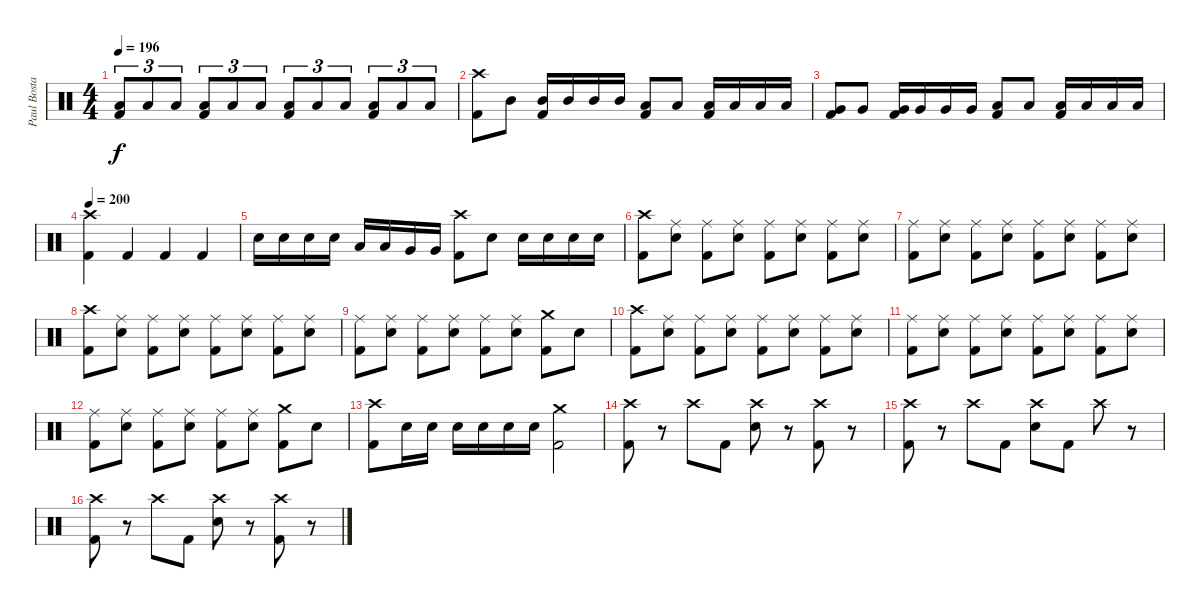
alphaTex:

\track ("Paul Bostaph" "Paul Bosta") {instrument percussion}
\staff {score}
\articulation defaults
\ts (4 4)
\tempo 196
\clef neutral
\ks c
("Low Floor Tom (hit)" "Kick (hit) 2").8{tu (3 2) dy f} "Low Floor Tom (hit)".8{tu (3 2)} "Low Floor Tom (hit)".8{tu (3 2)} ("Low Floor Tom (hit)" "Kick (hit) 2").8{tu (3 2)} "Low Floor Tom (hit)".8{tu (3 2)} "Low Floor Tom (hit)".8{tu (3 2)} ("Low Floor Tom (hit)" "Kick (hit) 2").8{tu (3 2)} "Low Floor Tom (hit)".8{tu (3 2)} "Low Floor Tom (hit)".8{tu (3 2)} ("Low Floor Tom (hit)" "Kick (hit) 2").8{tu (3 2)} "Low Floor Tom (hit)".8{tu (3 2)} "Low Floor Tom (hit)".8{tu (3 2)} |
("Crash high (hit)" "Kick (hit) 2").8 "Mid Tom (hit)".8 ("Kick (hit) 2" "Mid Tom (hit)").16 "Mid Tom (hit)".16 "Mid Tom (hit)".16 "Mid Tom (hit)".16 ("Kick (hit) 2" "Low Tom (hit)").8 "Low Tom (hit)".8 ("Kick (hit) 2" "Low Tom (hit)").16 "Low Tom (hit)".16 "Low Tom (hit)".16 "Low Tom (hit)".16 |
("Kick (hit) 2" "Very Low Tom (hit)").8 "Very Low Tom (hit)".8 ("Kick (hit) 2" "Very Low Tom (hit)").16 "Very Low Tom (hit)".16 "Very Low Tom (hit)".16 "Very Low Tom (hit)".16 ("Kick (hit) 2" "Low Floor Tom (hit)").8 "Low Floor Tom (hit)".8 ("Kick (hit) 2" "Low Floor Tom (hit)").16 "Low Floor Tom (hit)".16 "Low Floor Tom (hit)".16 "Low Floor Tom (hit)".16 |
\tempo 200
("Crash high (hit)" "Kick (hit) 2").4 "Kick (hit) 2".4 "Kick (hit) 2".4 "Kick (hit) 2".4 |
"Electric Snare (hit)".16 "Electric Snare (hit)".16 "Electric Snare (hit)".16 "Electric Snare (hit)".16 "Low Tom (hit)".16 "Low Tom (hit)".16 "Very Low Tom (hit)".16 "Very Low Tom (hit)".16 ("Crash high (hit)" "Kick (hit) 2").8 "Electric Snare (hit)".8 "Electric Snare (hit)".16 "Electric Snare (hit)".16 "Electric Snare (hit)".16 "Electric Snare (hit)".16 |
("Crash high (hit)" "Kick (hit) 2").8 ("Ride (middle)" "Electric Snare (hit)").8 ("Ride (middle)" "Kick (hit) 2").8 ("Ride (middle)" "Electric Snare (hit)").8 ("Ride (middle)" "Kick (hit) 2").8 ("Ride (middle)" "Electric Snare (hit)").8 ("Ride (middle)" "Kick (hit) 2").8 ("Ride (middle)" "Electric Snare (hit)").8 |
("Ride (middle)" "Kick (hit) 2").8 ("Ride (middle)" "Electric Snare (hit)").8 ("Ride (middle)" "Kick (hit) 2").8 ("Ride (middle)" "Electric Snare (hit)").8 ("Ride (middle)" "Kick (hit) 2").8 ("Ride (middle)" "Electric Snare (hit)").8 ("Ride (middle)" "Kick (hit) 2").8 ("Ride (middle)" "Electric Snare (hit)").8 |
("Crash high (hit)" "Kick (hit) 2").8 ("Ride (middle)" "Electric Snare (hit)").8 ("Ride (middle)" "Kick (hit) 2").8 ("Ride (middle)" "Electric Snare (hit)").8 ("Ride (middle)" "Kick (hit) 2").8 ("Ride (middle)" "Electric Snare (hit)").8 ("Ride (middle)" "Kick (hit) 2").8 ("Ride (middle)" "Electric Snare (hit)").8 |
("Ride (middle)" "Kick (hit) 2").8 ("Ride (middle)" "Electric Snare (hit)").8 ("Ride (middle)" "Kick (hit) 2").8 ("Ride (middle)" "Electric Snare (hit)").8 ("Ride (middle)" "Kick (hit) 2").8 ("Ride (middle)" "Electric Snare (hit)").8 ("Crash medium (hit)" "Kick (hit) 2").8 "Electric Snare (hit)".8 |
("Crash high (hit)" "Kick (hit) 2").8 ("Ride (middle)" "Electric Snare (hit)").8 ("Ride (middle)" "Kick (hit) 2").8 ("Ride (middle)" "Electric Snare (hit)").8 ("Ride (middle)" "Kick (hit) 2").8 ("Ride (middle)" "Electric Snare (hit)").8 ("Ride (middle)" "Kick (hit) 2").8 ("Ride (middle)" "Electric Snare (hit)").8 |
("Ride (middle)" "Kick (hit) 2").8 ("Ride (middle)" "Electric Snare (hit)").8 ("Ride (middle)" "Kick (hit) 2").8 ("Ride (middle)" "Electric Snare (hit)").8 ("Ride (middle)" "Kick (hit) 2").8 ("Ride (middle)" "Electric Snare (hit)").8 ("Ride (middle)" "Kick (hit) 2").8 ("Ride (middle)" "Electric Snare (hit)").8 |
("Ride (middle)" "Kick (hit) 2").8 ("Ride (middle)" "Electric Snare (hit)").8 ("Ride (middle)" "Kick (hit) 2").8 ("Ride (middle)" "Electric Snare (hit)").8 ("Ride (middle)" "Kick (hit) 2").8 ("Ride (middle)" "Electric Snare (hit)").8 ("Crash medium (hit)" "Kick (hit) 2").8 "Electric Snare (hit)".8 |
("Crash high (hit)" "Kick (hit) 2").8 "Electric Snare (hit)".16 "Electric Snare (hit)".16 "Electric Snare (hit)".16 "Electric Snare (hit)".16 "Electric Snare (hit)".16 "Electric Snare (hit)".16 ("Crash medium (hit)" "Kick (hit) 2").2 |
("Crash high (hit)" "Kick (hit) 2").8 r.8 "Crash high (hit)".8 "Kick (hit) 2".8 ("Crash high (hit)" "Electric Snare (hit)").8 r.8 ("Crash high (hit)" "Kick (hit) 2").8 r.8 |
("Crash high (hit)" "Kick (hit) 2").8 r.8 "Crash high (hit)".8 "Kick (hit) 2".8 ("Crash high (hit)" "Electric Snare (hit)").8 "Kick (hit) 2".8 "Crash high (hit)".8 r.8 |
("Crash high (hit)" "Kick (hit) 2").8 r.8 "Crash high (hit)".8 "Kick (hit) 2".8 ("Crash high (hit)" "Electric Snare (hit)").8 r.8 ("Crash high (hit)" "Kick (hit) 2").8 r.8
